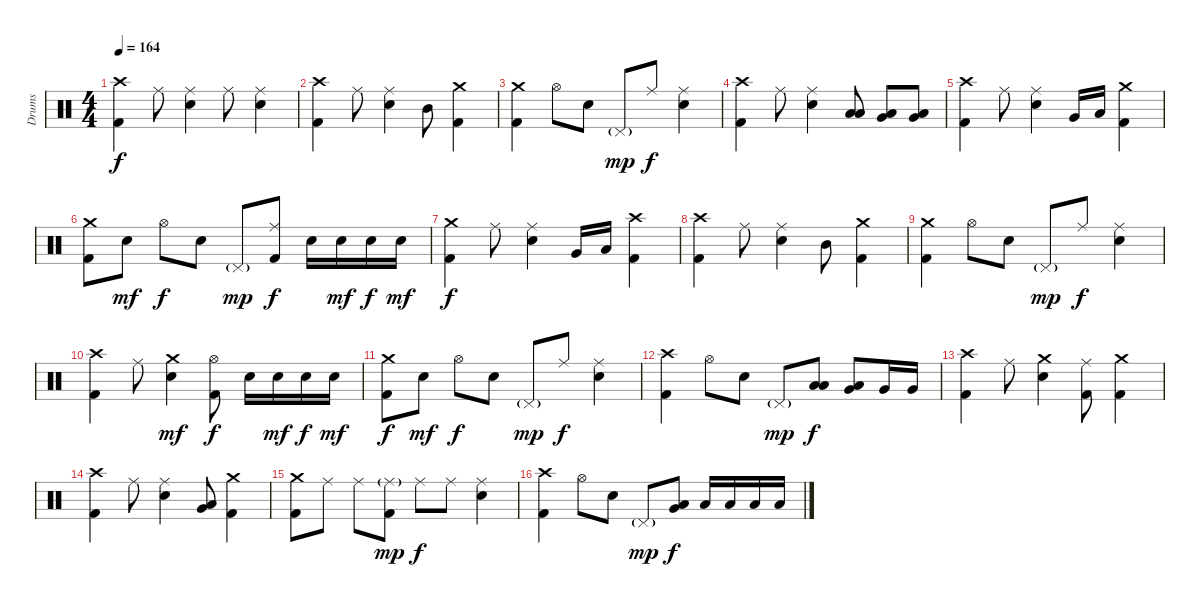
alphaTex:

\track ("Drums" "Drums") {instrument percussion}
\staff {score}
\articulation defaults
\ts (4 4)
\section ("" "")
\tempo 164
\clef neutral
\ks c
("Crash high (hit)" "Kick (hit) 2").4{dy f} "Ride (middle)".8 ("Ride (middle)" "Electric Snare (hit)").4 "Ride (middle)".8 ("Ride (middle)" "Electric Snare (hit)").4 |
("Crash high (hit)" "Kick (hit) 2").4 "Ride (middle)".8 ("Ride (middle)" "Electric Snare (hit)").4 "Mid Tom (hit)".8 ("Crash medium (hit)" "Kick (hit) 2").4 |
("Crash medium (hit)" "Kick (hit) 2").4 "Hi-Hat (open)".8 "Electric Snare (hit)".8 "Pedal Hi-Hat (hit)"{g}.8{dy mp} "Ride (middle)".8{dy f} ("Ride (middle)" "Electric Snare (hit)").4 |
("Crash high (hit)" "Kick (hit) 2").4 "Ride (middle)".8 ("Ride (middle)" "Electric Snare (hit)").4 ("Low Tom (hit)" "Low Floor Tom (hit)").8 ("Very Low Tom (hit)" "Low Floor Tom (hit)").8 ("Very Low Tom (hit)" "Low Floor Tom (hit)").8 |
("Crash high (hit)" "Kick (hit) 2").4 "Ride (middle)".8 ("Ride (middle)" "Electric Snare (hit)").4 "Very Low Tom (hit)".16 "Low Floor Tom (hit)".16 ("Crash medium (hit)" "Kick (hit) 2").4 |
("Crash medium (hit)" "Kick (hit) 2").8 "Electric Snare (hit)".8{dy mf} "Hi-Hat (open)".8{dy f} "Electric Snare (hit)".8 "Pedal Hi-Hat (hit)"{g}.8{dy mp} ("Ride (middle)" "Kick (hit) 2").8{dy f} "Electric Snare (hit)".16 "Electric Snare (hit)".16{dy mf} "Electric Snare (hit)".16{dy f} "Electric Snare (hit)".16{dy mf} |
("Crash medium (hit)" "Kick (hit) 2").4{dy f} "Ride (middle)".8 ("Ride (middle)" "Electric Snare (hit)").4 "Very Low Tom (hit)".16 "Low Floor Tom (hit)".16 ("Crash high (hit)" "Kick (hit) 2").4 |
("Crash high (hit)" "Kick (hit) 2").4 "Ride (middle)".8 ("Ride (middle)" "Electric Snare (hit)").4 "Mid Tom (hit)".8 ("Crash medium (hit)" "Kick (hit) 2").4 |
("Crash medium (hit)" "Kick (hit) 2").4 "Hi-Hat (open)".8 "Electric Snare (hit)".8 "Pedal Hi-Hat (hit)"{g}.8{dy mp} "Ride (middle)".8{dy f} ("Ride (middle)" "Electric Snare (hit)").4 |
("Crash high (hit)" "Kick (hit) 2").4 "Ride (middle)".8 ("Crash medium (hit)" "Electric Snare (hit)").4{dy mf} ("Hi-Hat (open)" "Kick (hit) 2").8{dy f} "Electric Snare (hit)".16 "Electric Snare (hit)".16{dy mf} "Electric Snare (hit)".16{dy f} "Electric Snare (hit)".16{dy mf} |
("Crash medium (hit)" "Kick (hit) 2").8{dy f} "Electric Snare (hit)".8{dy mf} "Hi-Hat (open)".8{dy f} "Electric Snare (hit)".8 "Pedal Hi-Hat (hit)"{g}.8{dy mp} "Ride (middle)".8{dy f} ("Ride (middle)" "Electric Snare (hit)").4 |
("Crash high (hit)" "Kick (hit) 2").4 "Hi-Hat (open)".8 "Electric Snare (hit)".8 "Pedal Hi-Hat (hit)"{g}.8{dy mp} ("Low Tom (hit)" "Low Floor Tom (hit)").8{dy f} ("Very Low Tom (hit)" "Low Floor Tom (hit)").8 "Very Low Tom (hit)".16 "Very Low Tom (hit)".16 |
("Crash high (hit)" "Kick (hit) 2").4 "Ride (middle)".8 ("Crash medium (hit)" "Electric Snare (hit)").4 ("Ride (middle)" "Kick (hit) 2").8 ("Crash medium (hit)" "Kick (hit) 2").4 |
("Crash high (hit)" "Kick (hit) 2").4 "Ride (middle)".8 ("Ride (middle)" "Electric Snare (hit)").4 ("Very Low Tom (hit)" "Low Floor Tom (hit)").8 ("Crash medium (hit)" "Kick (hit) 2").4 |
("Crash medium (hit)" "Kick (hit) 2").8 "Ride (middle)".8 "Ride (middle)".8 ("Ride (middle)"{g} "Kick (hit) 2").8{dy mp} "Ride (middle)".8{dy f} "Ride (middle)".8 ("Ride (middle)" "Electric Snare (hit)").4 |
("Crash high (hit)" "Kick (hit) 2").4 "Hi-Hat (open)".8 "Electric Snare (hit)".8 "Pedal Hi-Hat (hit)"{g}.8{dy mp} ("Very Low Tom (hit)" "Low Floor Tom (hit)").8{dy f} "Low Tom (hit)".16 "Low Floor Tom (hit)".16 "Low Tom (hit)".16 "Low Floor Tom (hit)".16
